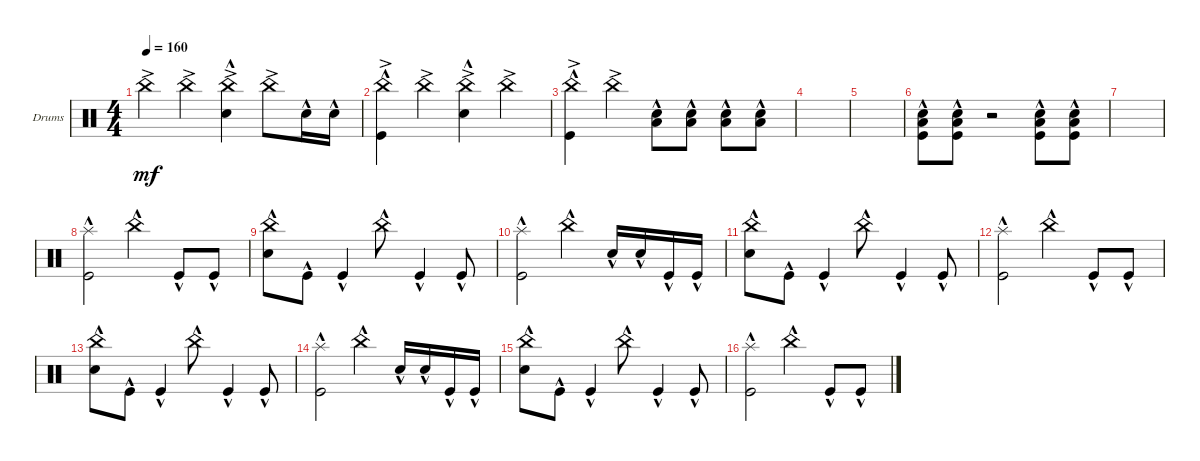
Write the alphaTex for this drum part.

\defaultSystemsLayout 4
\bracketExtendMode groupsimilarinstruments
\firstSystemTrackNameOrientation horizontal
\otherSystemsTrackNameOrientation horizontal
\track ("Drums" "Drums") {instrument percussion}
\staff {score}
\articulation defaults
\ts (4 4)
\tempo 160
\clef neutral
\ks c "China (hit)"{ac}.4{dy mf} "China (hit)"{ac}.4
("China (hit)"{ac} "Snare (hit) 2"{hac}).4 "China (hit)"{ac}.8 "Snare (hit) 2"{hac}.16 "Snare (hit) 2"{hac}.16 |
("Kick (hit)"{hac} "China (hit)"{ac}).4 "China (hit)"{ac}.4 ("China (hit)"{ac} "Snare (hit) 2"{hac}).4 "China (hit)"{ac}.4 |
("Kick (hit)"{hac} "China (hit)"{ac}).4 "China (hit)"{ac}.4 ("Snare (hit) 2"{hac} "Low Tom (hit)"{hac}).8 ("Snare (hit) 2"{hac} "Low Tom (hit)"{hac}).8 ("Snare (hit) 2"{hac} "Low Tom (hit)"{hac}).8 ("Snare (hit) 2"{hac} "Low Tom (hit)"{hac}).8 |
|
|
("Snare (hit) 2"{hac} "Low Tom (hit)"{hac} "Kick (hit)").8 ("Snare (hit) 2"{hac} "Low Tom (hit)"{hac} "Kick (hit)").8 r.2 ("Snare (hit) 2"{hac} "Low Tom (hit)"{hac} "Kick (hit)").8 ("Snare (hit) 2"{hac} "Low Tom (hit)"{hac} "Kick (hit)").8 |
|
("Kick (hit)"{hac} "Splash (hit)"{hac}).2 "China (hit)"{hac}.4 "Kick (hit)"{hac}.8 "Kick (hit)"{hac}.8 |
("China (hit)"{hac} "Snare (hit) 2"{hac}).8 "Kick (hit)"{hac}.8 "Kick (hit)"{hac}.4 "China (hit)"{hac}.8 "Kick (hit)"{hac}.4 "Kick (hit)"{hac}.8 |
("Kick (hit)"{hac} "Splash (hit)"{hac}).2 "China (hit)"{hac}.4 "Snare (hit) 2"{hac}.16 "Snare (hit) 2"{hac}.16 "Kick (hit)"{hac}.16 "Kick (hit)"{hac}.16 |
("China (hit)"{hac} "Snare (hit) 2"{hac}).8 "Kick (hit)"{hac}.8 "Kick (hit)"{hac}.4 "China (hit)"{hac}.8 "Kick (hit)"{hac}.4 "Kick (hit)"{hac}.8 |
("Kick (hit)"{hac} "Splash (hit)"{hac}).2 "China (hit)"{hac}.4 "Kick (hit)"{hac}.8 "Kick (hit)"{hac}.8 |
("China (hit)"{hac} "Snare (hit) 2"{hac}).8 "Kick (hit)"{hac}.8 "Kick (hit)"{hac}.4 "China (hit)"{hac}.8 "Kick (hit)"{hac}.4 "Kick (hit)"{hac}.8 |
("Kick (hit)"{hac} "Splash (hit)"{hac}).2 "China (hit)"{hac}.4 "Snare (hit) 2"{hac}.16 "Snare (hit) 2"{hac}.16 "Kick (hit)"{hac}.16 "Kick (hit)"{hac}.16 |
("China (hit)"{hac} "Snare (hit) 2"{hac}).8 "Kick (hit)"{hac}.8 "Kick (hit)"{hac}.4 "China (hit)"{hac}.8 "Kick (hit)"{hac}.4 "Kick (hit)"{hac}.8 |
("Kick (hit)"{hac} "Splash (hit)"{hac}).2 "China (hit)"{hac}.4 "Kick (hit)"{hac}.8 "Kick (hit)"{hac}.8
